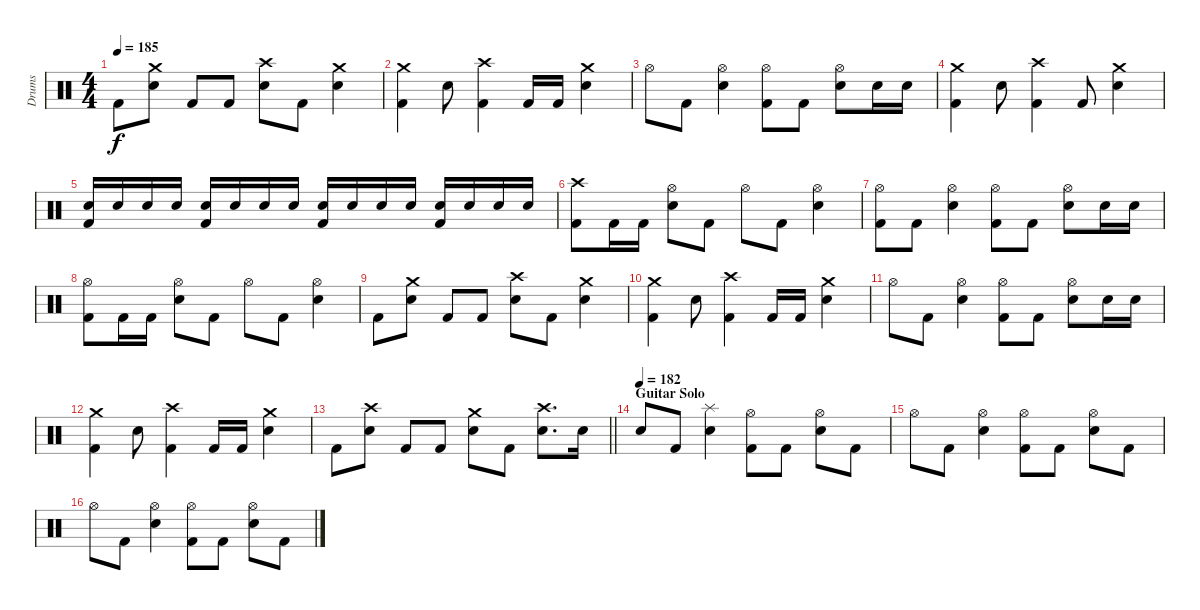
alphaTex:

\track ("Drums" "Drums") {instrument percussion}
\staff {score}
\articulation defaults
\ts (4 4)
\tempo 185
\clef neutral
\ks c "Kick (hit) 2".8{dy f}
("Crash medium (hit)" "Electric Snare (hit)").8 "Kick (hit) 2".8 "Kick (hit) 2".8 ("Crash high (hit)" "Electric Snare (hit)").8 "Kick (hit) 2".8 ("Crash medium (hit)" "Electric Snare (hit)").4 |
("Crash medium (hit)" "Kick (hit) 2").4 "Electric Snare (hit)".8 ("Crash high (hit)" "Kick (hit) 2").4 "Kick (hit) 2".16 "Kick (hit) 2".16 ("Crash medium (hit)" "Electric Snare (hit)").4 |
"Hi-Hat (open)".8 "Kick (hit) 2".8 ("Hi-Hat (open)" "Electric Snare (hit)").4 ("Hi-Hat (open)" "Kick (hit) 2").8 "Kick (hit) 2".8 ("Hi-Hat (open)" "Electric Snare (hit)").8 "Electric Snare (hit)".16 "Electric Snare (hit)".16 |
("Crash medium (hit)" "Kick (hit) 2").4 "Electric Snare (hit)".8 ("Crash high (hit)" "Kick (hit) 2").4 "Kick (hit) 2".8 ("Crash medium (hit)" "Electric Snare (hit)").4 |
("Electric Snare (hit)" "Kick (hit) 2").16 "Electric Snare (hit)".16 "Electric Snare (hit)".16 "Electric Snare (hit)".16 ("Electric Snare (hit)" "Kick (hit) 2").16 "Electric Snare (hit)".16 "Electric Snare (hit)".16 "Electric Snare (hit)".16 ("Electric Snare (hit)" "Kick (hit) 2").16 "Electric Snare (hit)".16 "Electric Snare (hit)".16 "Electric Snare (hit)".16 ("Electric Snare (hit)" "Kick (hit) 2").16 "Electric Snare (hit)".16 "Electric Snare (hit)".16 "Electric Snare (hit)".16 |
("Crash high (hit)" "Kick (hit) 2").8 "Kick (hit) 2".16 "Kick (hit) 2".16 ("Hi-Hat (open)" "Electric Snare (hit)").8 "Kick (hit) 2".8 "Hi-Hat (open)".8 "Kick (hit) 2".8 ("Hi-Hat (open)" "Electric Snare (hit)").4 |
("Hi-Hat (open)" "Kick (hit) 2").8 "Kick (hit) 2".8 ("Hi-Hat (open)" "Electric Snare (hit)").4 ("Hi-Hat (open)" "Kick (hit) 2").8 "Kick (hit) 2".8 ("Hi-Hat (open)" "Electric Snare (hit)").8 "Electric Snare (hit)".16 "Electric Snare (hit)".16 |
("Hi-Hat (open)" "Kick (hit) 2").8 "Kick (hit) 2".16 "Kick (hit) 2".16 ("Hi-Hat (open)" "Electric Snare (hit)").8 "Kick (hit) 2".8 "Hi-Hat (open)".8 "Kick (hit) 2".8 ("Hi-Hat (open)" "Electric Snare (hit)").4 |
"Kick (hit) 2".8 ("Crash medium (hit)" "Electric Snare (hit)").8 "Kick (hit) 2".8 "Kick (hit) 2".8 ("Crash high (hit)" "Electric Snare (hit)").8 "Kick (hit) 2".8 ("Crash medium (hit)" "Electric Snare (hit)").4 |
("Crash medium (hit)" "Kick (hit) 2").4 "Electric Snare (hit)".8 ("Crash high (hit)" "Kick (hit) 2").4 "Kick (hit) 2".16 "Kick (hit) 2".16 ("Crash medium (hit)" "Electric Snare (hit)").4 |
"Hi-Hat (open)".8 "Kick (hit) 2".8 ("Hi-Hat (open)" "Electric Snare (hit)").4 ("Hi-Hat (open)" "Kick (hit) 2").8 "Kick (hit) 2".8 ("Hi-Hat (open)" "Electric Snare (hit)").8 "Electric Snare (hit)".16 "Electric Snare (hit)".16 |
("Crash medium (hit)" "Kick (hit) 2").4 "Electric Snare (hit)".8 ("Crash high (hit)" "Kick (hit) 2").4 "Kick (hit) 2".16 "Kick (hit) 2".16 ("Crash medium (hit)" "Electric Snare (hit)").4 |
\barLineRight lightlight "Kick (hit) 2".8
("Crash high (hit)" "Electric Snare (hit)").8 "Kick (hit) 2".8 "Kick (hit) 2".8 ("Crash medium (hit)" "Electric Snare (hit)").8 "Kick (hit) 2".8 ("Crash high (hit)" "Electric Snare (hit)").8{d} "Electric Snare (hit)".16 |
\section ("" "Guitar Solo")
\tempo (182)
"Electric Snare (hit)".8 "Kick (hit) 2".8 ("Splash (hit)" "Electric Snare (hit)").4 ("Hi-Hat (open)" "Kick (hit) 2").8 "Kick (hit) 2".8 ("Hi-Hat (open)" "Electric Snare (hit)").8 "Kick (hit) 2".8 |
"Hi-Hat (open)".8 "Kick (hit) 2".8 ("Hi-Hat (open)" "Electric Snare (hit)").4 ("Hi-Hat (open)" "Kick (hit) 2").8 "Kick (hit) 2".8 ("Hi-Hat (open)" "Electric Snare (hit)").8 "Kick (hit) 2".8 |
"Hi-Hat (open)".8 "Kick (hit) 2".8 ("Hi-Hat (open)" "Electric Snare (hit)").4 ("Hi-Hat (open)" "Kick (hit) 2").8 "Kick (hit) 2".8 ("Hi-Hat (open)" "Electric Snare (hit)").8 "Kick (hit) 2".8
